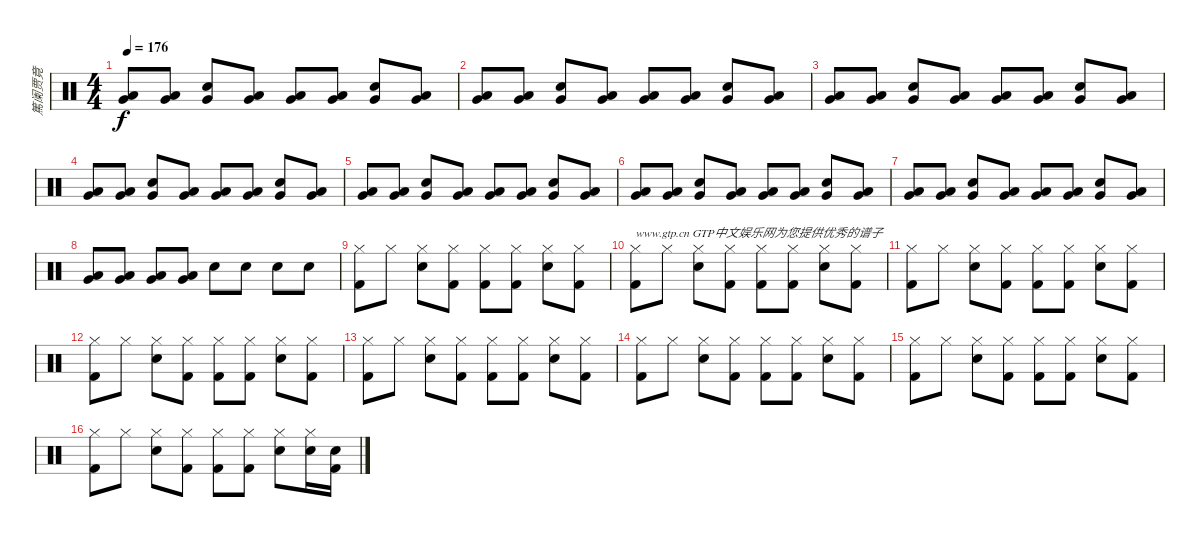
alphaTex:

\track ("篤阑贾竟" "篤阑贾竟") {instrument percussion}
\staff {score}
\articulation defaults
\ts (4 4)
\tempo 176
\clef neutral
\ks c
("Very Low Tom (hit)" "Low Floor Tom (hit)").8{dy f} ("Very Low Tom (hit)" "Low Floor Tom (hit)").8 ("Very Low Tom (hit)" "Snare (hit) 2").8 ("Very Low Tom (hit)" "Low Floor Tom (hit)").8 ("Very Low Tom (hit)" "Low Floor Tom (hit)").8 ("Very Low Tom (hit)" "Low Floor Tom (hit)").8 ("Very Low Tom (hit)" "Snare (hit) 2").8 ("Very Low Tom (hit)" "Low Floor Tom (hit)").8 |
("Very Low Tom (hit)" "Low Floor Tom (hit)").8 ("Very Low Tom (hit)" "Low Floor Tom (hit)").8 ("Very Low Tom (hit)" "Snare (hit) 2").8 ("Very Low Tom (hit)" "Low Floor Tom (hit)").8 ("Very Low Tom (hit)" "Low Floor Tom (hit)").8 ("Very Low Tom (hit)" "Low Floor Tom (hit)").8 ("Very Low Tom (hit)" "Snare (hit) 2").8 ("Very Low Tom (hit)" "Low Floor Tom (hit)").8 |
("Very Low Tom (hit)" "Low Floor Tom (hit)").8 ("Very Low Tom (hit)" "Low Floor Tom (hit)").8 ("Very Low Tom (hit)" "Snare (hit) 2").8 ("Very Low Tom (hit)" "Low Floor Tom (hit)").8 ("Very Low Tom (hit)" "Low Floor Tom (hit)").8 ("Very Low Tom (hit)" "Low Floor Tom (hit)").8 ("Very Low Tom (hit)" "Snare (hit) 2").8 ("Very Low Tom (hit)" "Low Floor Tom (hit)").8 |
("Very Low Tom (hit)" "Low Floor Tom (hit)").8 ("Very Low Tom (hit)" "Low Floor Tom (hit)").8 ("Very Low Tom (hit)" "Snare (hit) 2").8 ("Very Low Tom (hit)" "Low Floor Tom (hit)").8 ("Very Low Tom (hit)" "Low Floor Tom (hit)").8 ("Very Low Tom (hit)" "Low Floor Tom (hit)").8 ("Very Low Tom (hit)" "Snare (hit) 2").8 ("Very Low Tom (hit)" "Low Floor Tom (hit)").8 |
("Very Low Tom (hit)" "Low Floor Tom (hit)").8 ("Very Low Tom (hit)" "Low Floor Tom (hit)").8 ("Very Low Tom (hit)" "Snare (hit) 2").8 ("Very Low Tom (hit)" "Low Floor Tom (hit)").8 ("Very Low Tom (hit)" "Low Floor Tom (hit)").8 ("Very Low Tom (hit)" "Low Floor Tom (hit)").8 ("Very Low Tom (hit)" "Snare (hit) 2").8 ("Very Low Tom (hit)" "Low Floor Tom (hit)").8 |
("Very Low Tom (hit)" "Low Floor Tom (hit)").8 ("Very Low Tom (hit)" "Low Floor Tom (hit)").8 ("Very Low Tom (hit)" "Snare (hit) 2").8 ("Very Low Tom (hit)" "Low Floor Tom (hit)").8 ("Very Low Tom (hit)" "Low Floor Tom (hit)").8 ("Very Low Tom (hit)" "Low Floor Tom (hit)").8 ("Very Low Tom (hit)" "Snare (hit) 2").8 ("Very Low Tom (hit)" "Low Floor Tom (hit)").8 |
("Very Low Tom (hit)" "Low Floor Tom (hit)").8 ("Very Low Tom (hit)" "Low Floor Tom (hit)").8 ("Very Low Tom (hit)" "Snare (hit) 2").8 ("Very Low Tom (hit)" "Low Floor Tom (hit)").8 ("Very Low Tom (hit)" "Low Floor Tom (hit)").8 ("Very Low Tom (hit)" "Low Floor Tom (hit)").8 ("Very Low Tom (hit)" "Snare (hit) 2").8 ("Very Low Tom (hit)" "Low Floor Tom (hit)").8 |
("Very Low Tom (hit)" "Low Floor Tom (hit)").8 ("Very Low Tom (hit)" "Low Floor Tom (hit)").8 ("Very Low Tom (hit)" "Low Floor Tom (hit)").8 ("Very Low Tom (hit)" "Low Floor Tom (hit)").8 "Snare (hit) 2".8 "Snare (hit) 2".8 "Snare (hit) 2".8 "Snare (hit) 2".8 |
("Hi-Hat (closed)" "Kick (hit) 2").8 "Hi-Hat (closed)".8 ("Hi-Hat (closed)" "Snare (hit) 2").8 ("Hi-Hat (closed)" "Kick (hit) 2").8 ("Hi-Hat (closed)" "Kick (hit) 2").8 ("Hi-Hat (closed)" "Kick (hit) 2").8 ("Hi-Hat (closed)" "Snare (hit) 2").8 ("Hi-Hat (closed)" "Kick (hit) 2").8 |
("Hi-Hat (closed)" "Kick (hit) 2").8{txt "www.gtp.cn GTP中文娱乐网为您提供优秀的谱子"} "Hi-Hat (closed)".8 ("Hi-Hat (closed)" "Snare (hit) 2").8 ("Hi-Hat (closed)" "Kick (hit) 2").8 ("Hi-Hat (closed)" "Kick (hit) 2").8 ("Hi-Hat (closed)" "Kick (hit) 2").8 ("Hi-Hat (closed)" "Snare (hit) 2").8 ("Hi-Hat (closed)" "Kick (hit) 2").8 |
("Hi-Hat (closed)" "Kick (hit) 2").8 "Hi-Hat (closed)".8 ("Hi-Hat (closed)" "Snare (hit) 2").8 ("Hi-Hat (closed)" "Kick (hit) 2").8 ("Hi-Hat (closed)" "Kick (hit) 2").8 ("Hi-Hat (closed)" "Kick (hit) 2").8 ("Hi-Hat (closed)" "Snare (hit) 2").8 ("Hi-Hat (closed)" "Kick (hit) 2").8 |
("Hi-Hat (closed)" "Kick (hit) 2").8 "Hi-Hat (closed)".8 ("Hi-Hat (closed)" "Snare (hit) 2").8 ("Hi-Hat (closed)" "Kick (hit) 2").8 ("Hi-Hat (closed)" "Kick (hit) 2").8 ("Hi-Hat (closed)" "Kick (hit) 2").8 ("Hi-Hat (closed)" "Snare (hit) 2").8 ("Hi-Hat (closed)" "Kick (hit) 2").8 |
("Hi-Hat (closed)" "Kick (hit) 2").8 "Hi-Hat (closed)".8 ("Hi-Hat (closed)" "Snare (hit) 2").8 ("Hi-Hat (closed)" "Kick (hit) 2").8 ("Hi-Hat (closed)" "Kick (hit) 2").8 ("Hi-Hat (closed)" "Kick (hit) 2").8 ("Hi-Hat (closed)" "Snare (hit) 2").8 ("Hi-Hat (closed)" "Kick (hit) 2").8 |
("Hi-Hat (closed)" "Kick (hit) 2").8 "Hi-Hat (closed)".8 ("Hi-Hat (closed)" "Snare (hit) 2").8 ("Hi-Hat (closed)" "Kick (hit) 2").8 ("Hi-Hat (closed)" "Kick (hit) 2").8 ("Hi-Hat (closed)" "Kick (hit) 2").8 ("Hi-Hat (closed)" "Snare (hit) 2").8 ("Hi-Hat (closed)" "Kick (hit) 2").8 |
("Hi-Hat (closed)" "Kick (hit) 2").8 "Hi-Hat (closed)".8 ("Hi-Hat (closed)" "Snare (hit) 2").8 ("Hi-Hat (closed)" "Kick (hit) 2").8 ("Hi-Hat (closed)" "Kick (hit) 2").8 ("Hi-Hat (closed)" "Kick (hit) 2").8 ("Hi-Hat (closed)" "Snare (hit) 2").8 ("Hi-Hat (closed)" "Kick (hit) 2").8 |
("Hi-Hat (closed)" "Kick (hit) 2").8 "Hi-Hat (closed)".8 ("Hi-Hat (closed)" "Snare (hit) 2").8 ("Hi-Hat (closed)" "Kick (hit) 2").8 ("Hi-Hat (closed)" "Kick (hit) 2").8 ("Hi-Hat (closed)" "Kick (hit) 2").8 ("Hi-Hat (closed)" "Snare (hit) 2").8 ("Hi-Hat (closed)" "Snare (hit) 2").16 ("Snare (hit) 2" "Kick (hit) 2").16
